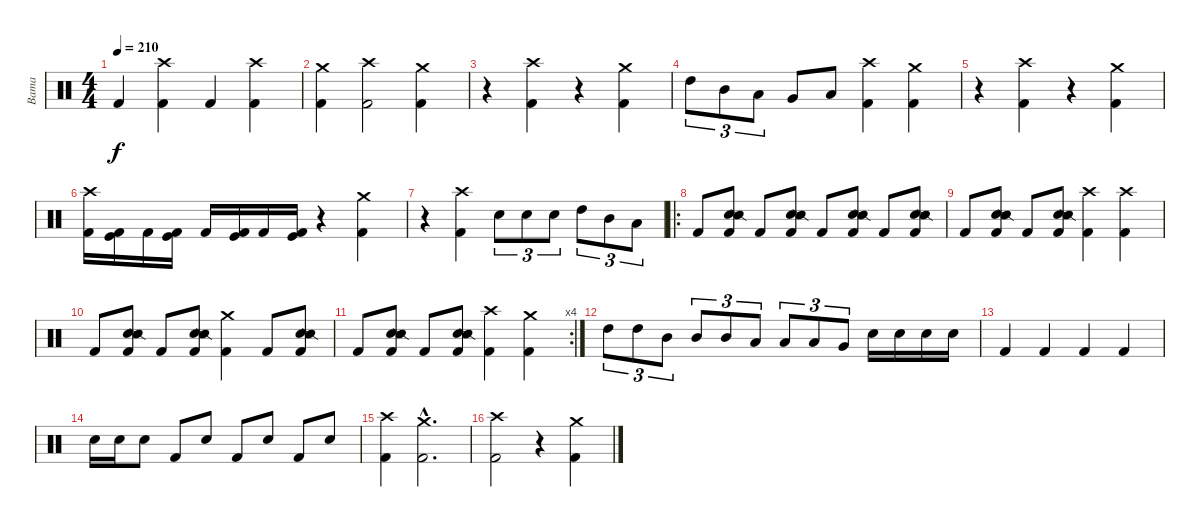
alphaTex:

\track ("Bama" "Bama") {instrument percussion}
\staff {score}
\articulation defaults
\ts (4 4)
\tempo 210
\clef neutral
\ks c "Kick (hit) 2".4{dy f}
("Crash high (hit)" "Kick (hit) 2").4 "Kick (hit) 2".4 ("Crash high (hit)" "Kick (hit) 2").4 |
("Crash medium (hit)" "Kick (hit) 2").4 ("Crash high (hit)" "Kick (hit) 2").2 ("Crash medium (hit)" "Kick (hit) 2").4 |
r.4 ("Crash high (hit)" "Kick (hit) 2").4 r.4 ("Crash medium (hit)" "Kick (hit) 2").4 |
"High Tom (hit)".8{tu (3 2)} "Mid Tom (hit)".8{tu (3 2)} "Low Tom (hit)".8{tu (3 2)} "Very Low Tom (hit)".8 "Low Floor Tom (hit)".8 ("Crash high (hit)" "Kick (hit) 2").4 ("Crash medium (hit)" "Kick (hit) 2").4 |
r.4 ("Crash high (hit)" "Kick (hit) 2").4 r.4 ("Crash medium (hit)" "Kick (hit) 2").4 |
("Crash high (hit)" "Kick (hit) 2").16 ("Kick (hit)" "Kick (hit) 2").16 "Kick (hit) 2".16 ("Kick (hit)" "Kick (hit) 2").16 "Kick (hit) 2".16 ("Kick (hit)" "Kick (hit) 2").16 "Kick (hit) 2".16 ("Kick (hit)" "Kick (hit) 2").16 r.4 ("Crash medium (hit)" "Kick (hit) 2").4 |
r.4 ("Crash high (hit)" "Kick (hit) 2").4 "Electric Snare (hit)".8{tu (3 2)} "Electric Snare (hit)".8{tu (3 2)} "Electric Snare (hit)".8{tu (3 2)} "High Tom (hit)".8{tu (3 2)} "Mid Tom (hit)".8{tu (3 2)} "Low Tom (hit)".8{tu (3 2)} |
\ro "Kick (hit) 2".8
("Electric Snare (hit)" "Snare (side stick) 2" "Kick (hit) 2").8 "Kick (hit) 2".8 ("Electric Snare (hit)" "Snare (side stick) 2" "Kick (hit) 2").8 "Kick (hit) 2".8 ("Electric Snare (hit)" "Snare (side stick) 2" "Kick (hit) 2").8 "Kick (hit) 2".8 ("Electric Snare (hit)" "Snare (side stick) 2" "Kick (hit) 2").8 |
"Kick (hit) 2".8 ("Electric Snare (hit)" "Snare (side stick) 2" "Kick (hit) 2").8 "Kick (hit) 2".8 ("Electric Snare (hit)" "Snare (side stick) 2" "Kick (hit) 2").8 ("Crash high (hit)" "Kick (hit) 2").4 ("Crash high (hit)" "Kick (hit) 2").4 |
"Kick (hit) 2".8 ("Electric Snare (hit)" "Snare (side stick) 2" "Kick (hit) 2").8 "Kick (hit) 2".8 ("Electric Snare (hit)" "Snare (side stick) 2" "Kick (hit) 2").8 ("Crash medium (hit)" "Kick (hit) 2").4 "Kick (hit) 2".8 ("Electric Snare (hit)" "Snare (side stick) 2" "Kick (hit) 2").8 |
\rc 4 "Kick (hit) 2".8
("Electric Snare (hit)" "Snare (side stick) 2" "Kick (hit) 2").8 "Kick (hit) 2".8 ("Electric Snare (hit)" "Snare (side stick) 2" "Kick (hit) 2").8 ("Crash high (hit)" "Kick (hit) 2").4 ("Crash medium (hit)" "Kick (hit) 2").4 |
"High Tom (hit)".8{tu (3 2)} "High Tom (hit)".8{tu (3 2)} "Mid Tom (hit)".8{tu (3 2)} "Mid Tom (hit)".8{tu (3 2)} "Mid Tom (hit)".8{tu (3 2)} "Low Tom (hit)".8{tu (3 2)} "Low Tom (hit)".8{tu (3 2)} "Low Tom (hit)".8{tu (3 2)} "Very Low Tom (hit)".8{tu (3 2)} "Electric Snare (hit)".16 "Electric Snare (hit)".16 "Electric Snare (hit)".16 "Electric Snare (hit)".16 |
"Kick (hit) 2".4 "Kick (hit) 2".4 "Kick (hit) 2".4 "Kick (hit) 2".4 |
"Electric Snare (hit)".16 "Electric Snare (hit)".16 "Electric Snare (hit)".8 "Kick (hit) 2".8 "Electric Snare (hit)".8 "Kick (hit) 2".8 "Electric Snare (hit)".8 "Kick (hit) 2".8 "Electric Snare (hit)".8 |
("Crash high (hit)" "Kick (hit) 2").4 ("Crash medium (hit)"{hac} "Kick (hit) 2"{hac}).2{d} |
("Crash high (hit)" "Kick (hit) 2").2 r.4 ("Crash medium (hit)" "Kick (hit) 2").4
